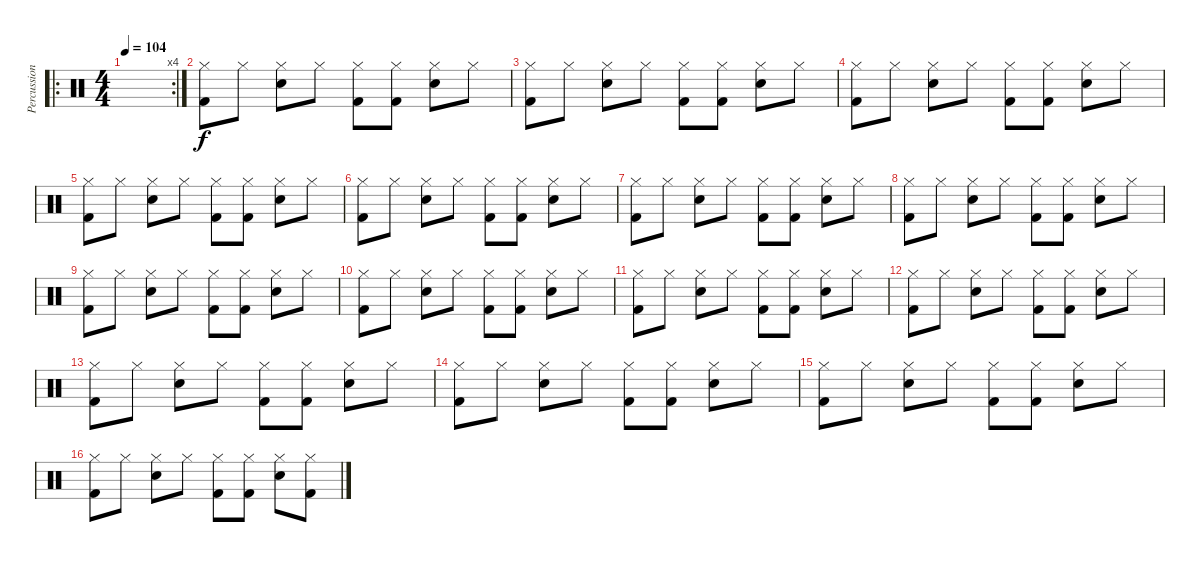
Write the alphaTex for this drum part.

\track ("Percussions" "Percussion") {instrument percussion}
\staff {score}
\articulation defaults
\ro
\rc 4
\ts (4 4)
\tempo 104
\clef neutral
\ks c
|
("Hi-Hat (closed)" "Kick (hit) 2").8 "Hi-Hat (closed)".8 ("Hi-Hat (closed)" "Snare (hit) 2").8 "Hi-Hat (closed)".8 ("Hi-Hat (closed)" "Kick (hit) 2").8 ("Hi-Hat (closed)" "Kick (hit) 2").8 ("Hi-Hat (closed)" "Snare (hit) 2").8 "Hi-Hat (closed)".8 |
("Hi-Hat (closed)" "Kick (hit) 2").8 "Hi-Hat (closed)".8 ("Hi-Hat (closed)" "Snare (hit) 2").8 "Hi-Hat (closed)".8 ("Hi-Hat (closed)" "Kick (hit) 2").8 ("Hi-Hat (closed)" "Kick (hit) 2").8 ("Hi-Hat (closed)" "Snare (hit) 2").8 "Hi-Hat (closed)".8 |
("Hi-Hat (closed)" "Kick (hit) 2").8 "Hi-Hat (closed)".8 ("Hi-Hat (closed)" "Snare (hit) 2").8 "Hi-Hat (closed)".8 ("Hi-Hat (closed)" "Kick (hit) 2").8 ("Hi-Hat (closed)" "Kick (hit) 2").8 ("Hi-Hat (closed)" "Snare (hit) 2").8 "Hi-Hat (closed)".8 |
("Hi-Hat (closed)" "Kick (hit) 2").8 "Hi-Hat (closed)".8 ("Hi-Hat (closed)" "Snare (hit) 2").8 "Hi-Hat (closed)".8 ("Hi-Hat (closed)" "Kick (hit) 2").8 ("Hi-Hat (closed)" "Kick (hit) 2").8 ("Hi-Hat (closed)" "Snare (hit) 2").8 "Hi-Hat (closed)".8 |
("Hi-Hat (closed)" "Kick (hit) 2").8 "Hi-Hat (closed)".8 ("Hi-Hat (closed)" "Snare (hit) 2").8 "Hi-Hat (closed)".8 ("Hi-Hat (closed)" "Kick (hit) 2").8 ("Hi-Hat (closed)" "Kick (hit) 2").8 ("Hi-Hat (closed)" "Snare (hit) 2").8 "Hi-Hat (closed)".8 |
("Hi-Hat (closed)" "Kick (hit) 2").8 "Hi-Hat (closed)".8 ("Hi-Hat (closed)" "Snare (hit) 2").8 "Hi-Hat (closed)".8 ("Hi-Hat (closed)" "Kick (hit) 2").8 ("Hi-Hat (closed)" "Kick (hit) 2").8 ("Hi-Hat (closed)" "Snare (hit) 2").8 "Hi-Hat (closed)".8 |
("Hi-Hat (closed)" "Kick (hit) 2").8 "Hi-Hat (closed)".8 ("Hi-Hat (closed)" "Snare (hit) 2").8 "Hi-Hat (closed)".8 ("Hi-Hat (closed)" "Kick (hit) 2").8 ("Hi-Hat (closed)" "Kick (hit) 2").8 ("Hi-Hat (closed)" "Snare (hit) 2").8 "Hi-Hat (closed)".8 |
("Hi-Hat (closed)" "Kick (hit) 2").8 "Hi-Hat (closed)".8 ("Hi-Hat (closed)" "Snare (hit) 2").8 "Hi-Hat (closed)".8 ("Hi-Hat (closed)" "Kick (hit) 2").8 ("Hi-Hat (closed)" "Kick (hit) 2").8 ("Hi-Hat (closed)" "Snare (hit) 2").8 "Hi-Hat (closed)".8 |
("Hi-Hat (closed)" "Kick (hit) 2").8 "Hi-Hat (closed)".8 ("Hi-Hat (closed)" "Snare (hit) 2").8 "Hi-Hat (closed)".8 ("Hi-Hat (closed)" "Kick (hit) 2").8 ("Hi-Hat (closed)" "Kick (hit) 2").8 ("Hi-Hat (closed)" "Snare (hit) 2").8 "Hi-Hat (closed)".8 |
("Hi-Hat (closed)" "Kick (hit) 2").8 "Hi-Hat (closed)".8 ("Hi-Hat (closed)" "Snare (hit) 2").8 "Hi-Hat (closed)".8 ("Hi-Hat (closed)" "Kick (hit) 2").8 ("Hi-Hat (closed)" "Kick (hit) 2").8 ("Hi-Hat (closed)" "Snare (hit) 2").8 "Hi-Hat (closed)".8 |
("Hi-Hat (closed)" "Kick (hit) 2").8 "Hi-Hat (closed)".8 ("Hi-Hat (closed)" "Snare (hit) 2").8 "Hi-Hat (closed)".8 ("Hi-Hat (closed)" "Kick (hit) 2").8 ("Hi-Hat (closed)" "Kick (hit) 2").8 ("Hi-Hat (closed)" "Snare (hit) 2").8 "Hi-Hat (closed)".8 |
("Hi-Hat (closed)" "Kick (hit) 2").8 "Hi-Hat (closed)".8 ("Hi-Hat (closed)" "Snare (hit) 2").8 "Hi-Hat (closed)".8 ("Hi-Hat (closed)" "Kick (hit) 2").8 ("Hi-Hat (closed)" "Kick (hit) 2").8 ("Hi-Hat (closed)" "Snare (hit) 2").8 "Hi-Hat (closed)".8 |
("Hi-Hat (closed)" "Kick (hit) 2").8 "Hi-Hat (closed)".8 ("Hi-Hat (closed)" "Snare (hit) 2").8 "Hi-Hat (closed)".8 ("Hi-Hat (closed)" "Kick (hit) 2").8 ("Hi-Hat (closed)" "Kick (hit) 2").8 ("Hi-Hat (closed)" "Snare (hit) 2").8 "Hi-Hat (closed)".8 |
("Hi-Hat (closed)" "Kick (hit) 2").8 "Hi-Hat (closed)".8 ("Hi-Hat (closed)" "Snare (hit) 2").8 "Hi-Hat (closed)".8 ("Hi-Hat (closed)" "Kick (hit) 2").8 ("Hi-Hat (closed)" "Kick (hit) 2").8 ("Hi-Hat (closed)" "Snare (hit) 2").8 "Hi-Hat (closed)".8 |
("Hi-Hat (closed)" "Kick (hit) 2").8 "Hi-Hat (closed)".8 ("Hi-Hat (closed)" "Snare (hit) 2").8 "Hi-Hat (closed)".8 ("Hi-Hat (closed)" "Kick (hit) 2").8 ("Hi-Hat (closed)" "Kick (hit) 2").8 ("Hi-Hat (closed)" "Snare (hit) 2").8 ("Hi-Hat (closed)" "Kick (hit) 2").8
